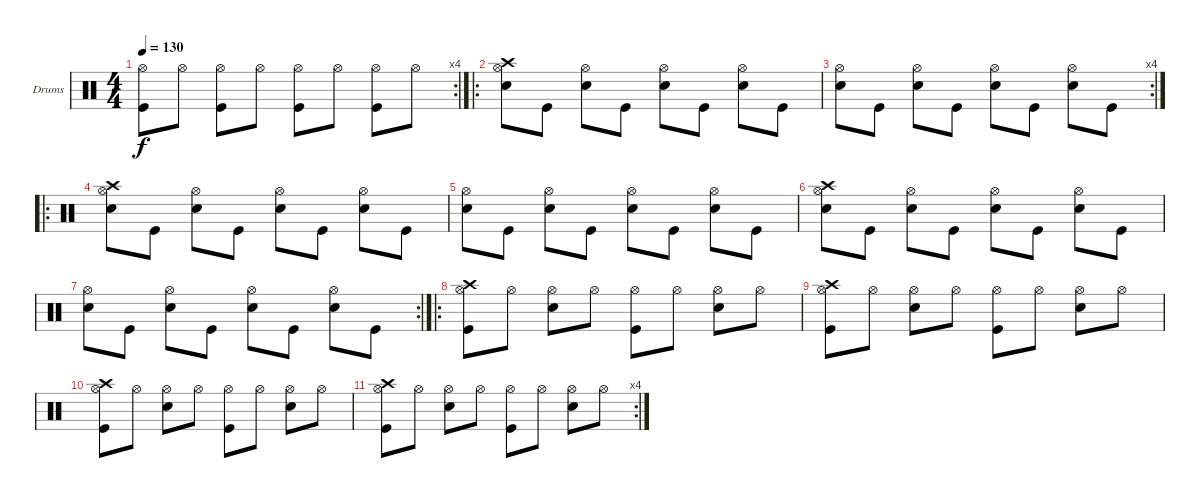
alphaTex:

\bracketExtendMode groupsimilarinstruments
\firstSystemTrackNameOrientation horizontal
\otherSystemsTrackNameOrientation horizontal
\track ("Drumkit" "Drums") {instrument percussion}
\staff {score}
\articulation defaults
\rc 4
\ts (4 4)
\tempo 130
\clef neutral
\ks c
("Hi-Hat (open)" "Kick (hit)").8{dy f} "Hi-Hat (open)".8 ("Hi-Hat (open)" "Kick (hit)").8 "Hi-Hat (open)".8 ("Hi-Hat (open)" "Kick (hit)").8 "Hi-Hat (open)".8 ("Hi-Hat (open)" "Kick (hit)").8 "Hi-Hat (open)".8 |
\ro
("Snare (hit) 2" "Hi-Hat (open)" "Crash high (hit)").8 "Kick (hit)".8 ("Snare (hit) 2" "Hi-Hat (open)").8 "Kick (hit)".8 ("Snare (hit) 2" "Hi-Hat (open)").8 "Kick (hit)".8 ("Snare (hit) 2" "Hi-Hat (open)").8 "Kick (hit)".8 |
\rc 4
("Snare (hit) 2" "Hi-Hat (open)").8 "Kick (hit)".8 ("Snare (hit) 2" "Hi-Hat (open)").8 "Kick (hit)".8 ("Snare (hit) 2" "Hi-Hat (open)").8 "Kick (hit)".8 ("Snare (hit) 2" "Hi-Hat (open)").8 "Kick (hit)".8 |
\ro
("Snare (hit) 2" "Hi-Hat (open)" "Crash high (hit)").8 "Kick (hit)".8 ("Snare (hit) 2" "Hi-Hat (open)").8 "Kick (hit)".8 ("Snare (hit) 2" "Hi-Hat (open)").8 "Kick (hit)".8 ("Snare (hit) 2" "Hi-Hat (open)").8 "Kick (hit)".8 |
("Snare (hit) 2" "Hi-Hat (open)").8 "Kick (hit)".8 ("Snare (hit) 2" "Hi-Hat (open)").8 "Kick (hit)".8 ("Snare (hit) 2" "Hi-Hat (open)").8 "Kick (hit)".8 ("Snare (hit) 2" "Hi-Hat (open)").8 "Kick (hit)".8 |
("Snare (hit) 2" "Hi-Hat (open)" "Crash high (hit)").8 "Kick (hit)".8 ("Snare (hit) 2" "Hi-Hat (open)").8 "Kick (hit)".8 ("Snare (hit) 2" "Hi-Hat (open)").8 "Kick (hit)".8 ("Snare (hit) 2" "Hi-Hat (open)").8 "Kick (hit)".8 |
\rc 2
("Snare (hit) 2" "Hi-Hat (open)").8 "Kick (hit)".8 ("Snare (hit) 2" "Hi-Hat (open)").8 "Kick (hit)".8 ("Snare (hit) 2" "Hi-Hat (open)").8 "Kick (hit)".8 ("Snare (hit) 2" "Hi-Hat (open)").8 "Kick (hit)".8 |
\ro
("Hi-Hat (open)" "Kick (hit)" "Crash high (hit)").8 "Hi-Hat (open)".8 ("Hi-Hat (open)" "Snare (hit) 2").8 "Hi-Hat (open)".8 ("Hi-Hat (open)" "Kick (hit)").8 "Hi-Hat (open)".8 ("Hi-Hat (open)" "Snare (hit) 2").8 "Hi-Hat (open)".8 |
("Hi-Hat (open)" "Kick (hit)" "Crash high (hit)").8 "Hi-Hat (open)".8 ("Hi-Hat (open)" "Snare (hit) 2").8 "Hi-Hat (open)".8 ("Hi-Hat (open)" "Kick (hit)").8 "Hi-Hat (open)".8 ("Hi-Hat (open)" "Snare (hit) 2").8 "Hi-Hat (open)".8 |
("Hi-Hat (open)" "Kick (hit)" "Crash high (hit)").8 "Hi-Hat (open)".8 ("Hi-Hat (open)" "Snare (hit) 2").8 "Hi-Hat (open)".8 ("Hi-Hat (open)" "Kick (hit)").8 "Hi-Hat (open)".8 ("Hi-Hat (open)" "Snare (hit) 2").8 "Hi-Hat (open)".8 |
\rc 4
("Hi-Hat (open)" "Kick (hit)" "Crash high (hit)").8 "Hi-Hat (open)".8 ("Hi-Hat (open)" "Snare (hit) 2").8 "Hi-Hat (open)".8 ("Hi-Hat (open)" "Kick (hit)").8 "Hi-Hat (open)".8 ("Hi-Hat (open)" "Snare (hit) 2").8 "Hi-Hat (open)".8
